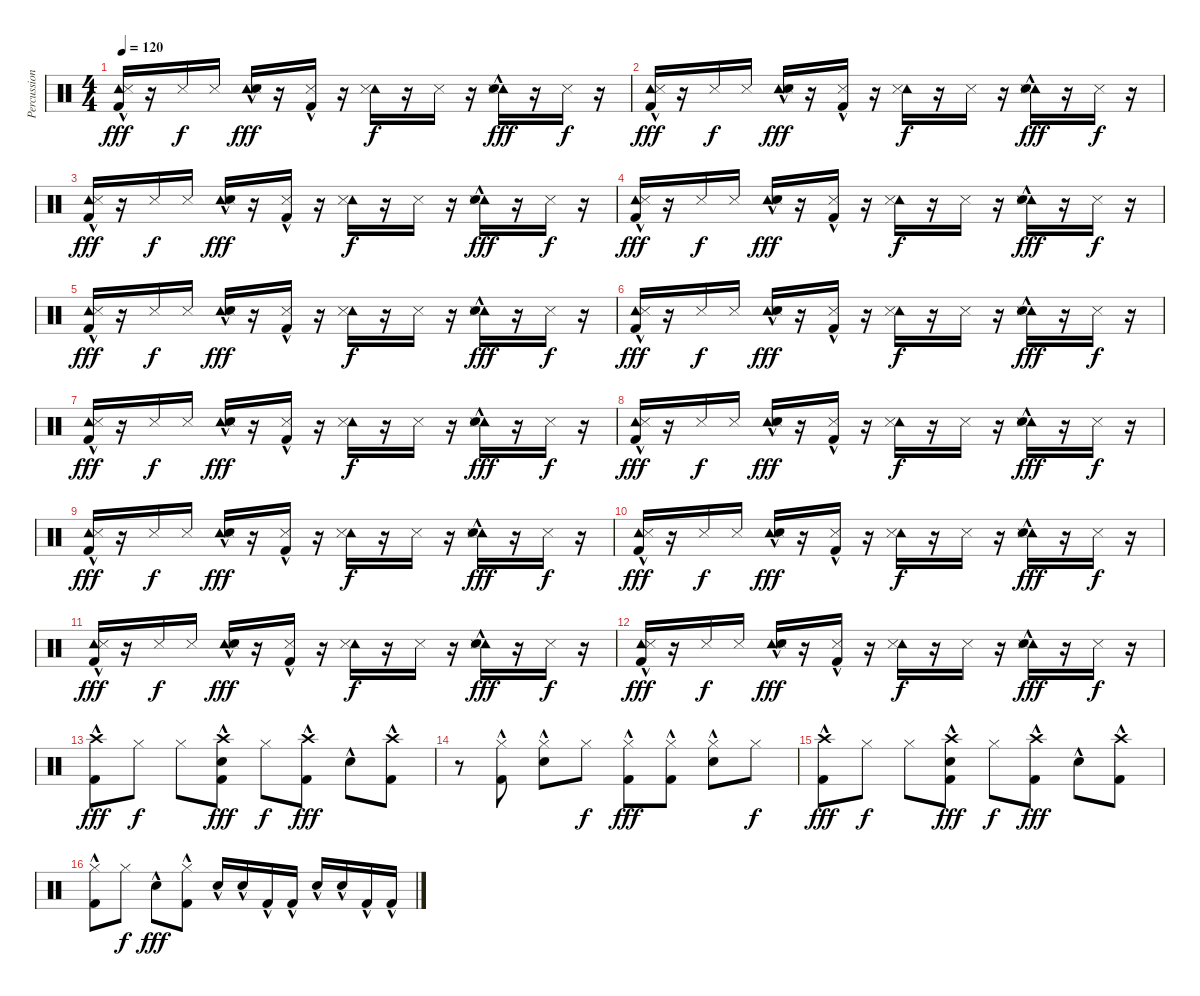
\track ("Percussion" "Percussion") {instrument percussion}
\staff {score}
\articulation defaults
\ts (4 4)
\tempo 120
\clef neutral
\ks c
("Tambourine (hit)" "Snare (side stick) 3" "Kick (hit) 2"{hac}).16{dy fff} r.16 "Snare (side stick) 3".16{dy f} "Snare (side stick) 3".16 ("Tambourine (hit)" "Snare (side stick) 3" "Snare (hit) 2"{hac}).16{dy fff} r.16 ("Snare (side stick) 3" "Kick (hit) 2"{hac}).16 r.16 ("Tambourine (hit)" "Snare (side stick) 3").16{dy f} r.16 "Snare (side stick) 3".16 r.16 ("Tambourine (hit)" "Snare (side stick) 3" "Snare (hit) 2"{hac}).16{dy fff} r.16 "Snare (side stick) 3".16{dy f} r.16 |
("Tambourine (hit)" "Snare (side stick) 3" "Kick (hit) 2"{hac}).16{dy fff} r.16 "Snare (side stick) 3".16{dy f} "Snare (side stick) 3".16 ("Tambourine (hit)" "Snare (side stick) 3" "Snare (hit) 2"{hac}).16{dy fff} r.16 ("Snare (side stick) 3" "Kick (hit) 2"{hac}).16 r.16 ("Tambourine (hit)" "Snare (side stick) 3").16{dy f} r.16 "Snare (side stick) 3".16 r.16 ("Tambourine (hit)" "Snare (side stick) 3" "Snare (hit) 2"{hac}).16{dy fff} r.16 "Snare (side stick) 3".16{dy f} r.16 |
("Tambourine (hit)" "Snare (side stick) 3" "Kick (hit) 2"{hac}).16{dy fff} r.16 "Snare (side stick) 3".16{dy f} "Snare (side stick) 3".16 ("Tambourine (hit)" "Snare (side stick) 3" "Snare (hit) 2"{hac}).16{dy fff} r.16 ("Snare (side stick) 3" "Kick (hit) 2"{hac}).16 r.16 ("Tambourine (hit)" "Snare (side stick) 3").16{dy f} r.16 "Snare (side stick) 3".16 r.16 ("Tambourine (hit)" "Snare (side stick) 3" "Snare (hit) 2"{hac}).16{dy fff} r.16 "Snare (side stick) 3".16{dy f} r.16 |
("Tambourine (hit)" "Snare (side stick) 3" "Kick (hit) 2"{hac}).16{dy fff} r.16 "Snare (side stick) 3".16{dy f} "Snare (side stick) 3".16 ("Tambourine (hit)" "Snare (side stick) 3" "Snare (hit) 2"{hac}).16{dy fff} r.16 ("Snare (side stick) 3" "Kick (hit) 2"{hac}).16 r.16 ("Tambourine (hit)" "Snare (side stick) 3").16{dy f} r.16 "Snare (side stick) 3".16 r.16 ("Tambourine (hit)" "Snare (side stick) 3" "Snare (hit) 2"{hac}).16{dy fff} r.16 "Snare (side stick) 3".16{dy f} r.16 |
("Tambourine (hit)" "Snare (side stick) 3" "Kick (hit) 2"{hac}).16{dy fff} r.16 "Snare (side stick) 3".16{dy f} "Snare (side stick) 3".16 ("Tambourine (hit)" "Snare (side stick) 3" "Snare (hit) 2"{hac}).16{dy fff} r.16 ("Snare (side stick) 3" "Kick (hit) 2"{hac}).16 r.16 ("Tambourine (hit)" "Snare (side stick) 3").16{dy f} r.16 "Snare (side stick) 3".16 r.16 ("Tambourine (hit)" "Snare (side stick) 3" "Snare (hit) 2"{hac}).16{dy fff} r.16 "Snare (side stick) 3".16{dy f} r.16 |
("Tambourine (hit)" "Snare (side stick) 3" "Kick (hit) 2"{hac}).16{dy fff} r.16 "Snare (side stick) 3".16{dy f} "Snare (side stick) 3".16 ("Tambourine (hit)" "Snare (side stick) 3" "Snare (hit) 2"{hac}).16{dy fff} r.16 ("Snare (side stick) 3" "Kick (hit) 2"{hac}).16 r.16 ("Tambourine (hit)" "Snare (side stick) 3").16{dy f} r.16 "Snare (side stick) 3".16 r.16 ("Tambourine (hit)" "Snare (side stick) 3" "Snare (hit) 2"{hac}).16{dy fff} r.16 "Snare (side stick) 3".16{dy f} r.16 |
("Tambourine (hit)" "Snare (side stick) 3" "Kick (hit) 2"{hac}).16{dy fff} r.16 "Snare (side stick) 3".16{dy f} "Snare (side stick) 3".16 ("Tambourine (hit)" "Snare (side stick) 3" "Snare (hit) 2"{hac}).16{dy fff} r.16 ("Snare (side stick) 3" "Kick (hit) 2"{hac}).16 r.16 ("Tambourine (hit)" "Snare (side stick) 3").16{dy f} r.16 "Snare (side stick) 3".16 r.16 ("Tambourine (hit)" "Snare (side stick) 3" "Snare (hit) 2"{hac}).16{dy fff} r.16 "Snare (side stick) 3".16{dy f} r.16 |
("Tambourine (hit)" "Snare (side stick) 3" "Kick (hit) 2"{hac}).16{dy fff} r.16 "Snare (side stick) 3".16{dy f} "Snare (side stick) 3".16 ("Tambourine (hit)" "Snare (side stick) 3" "Snare (hit) 2"{hac}).16{dy fff} r.16 ("Snare (side stick) 3" "Kick (hit) 2"{hac}).16 r.16 ("Tambourine (hit)" "Snare (side stick) 3").16{dy f} r.16 "Snare (side stick) 3".16 r.16 ("Tambourine (hit)" "Snare (side stick) 3" "Snare (hit) 2"{hac}).16{dy fff} r.16 "Snare (side stick) 3".16{dy f} r.16 |
("Tambourine (hit)" "Snare (side stick) 3" "Kick (hit) 2"{hac}).16{dy fff} r.16 "Snare (side stick) 3".16{dy f} "Snare (side stick) 3".16 ("Tambourine (hit)" "Snare (side stick) 3" "Snare (hit) 2"{hac}).16{dy fff} r.16 ("Snare (side stick) 3" "Kick (hit) 2"{hac}).16 r.16 ("Tambourine (hit)" "Snare (side stick) 3").16{dy f} r.16 "Snare (side stick) 3".16 r.16 ("Tambourine (hit)" "Snare (side stick) 3" "Snare (hit) 2"{hac}).16{dy fff} r.16 "Snare (side stick) 3".16{dy f} r.16 |
("Tambourine (hit)" "Snare (side stick) 3" "Kick (hit) 2"{hac}).16{dy fff} r.16 "Snare (side stick) 3".16{dy f} "Snare (side stick) 3".16 ("Tambourine (hit)" "Snare (side stick) 3" "Snare (hit) 2"{hac}).16{dy fff} r.16 ("Snare (side stick) 3" "Kick (hit) 2"{hac}).16 r.16 ("Tambourine (hit)" "Snare (side stick) 3").16{dy f} r.16 "Snare (side stick) 3".16 r.16 ("Tambourine (hit)" "Snare (side stick) 3" "Snare (hit) 2"{hac}).16{dy fff} r.16 "Snare (side stick) 3".16{dy f} r.16 |
("Tambourine (hit)" "Snare (side stick) 3" "Kick (hit) 2"{hac}).16{dy fff} r.16 "Snare (side stick) 3".16{dy f} "Snare (side stick) 3".16 ("Tambourine (hit)" "Snare (side stick) 3" "Snare (hit) 2"{hac}).16{dy fff} r.16 ("Snare (side stick) 3" "Kick (hit) 2"{hac}).16 r.16 ("Tambourine (hit)" "Snare (side stick) 3").16{dy f} r.16 "Snare (side stick) 3".16 r.16 ("Tambourine (hit)" "Snare (side stick) 3" "Snare (hit) 2"{hac}).16{dy fff} r.16 "Snare (side stick) 3".16{dy f} r.16 |
("Tambourine (hit)" "Snare (side stick) 3" "Kick (hit) 2"{hac}).16{dy fff} r.16 "Snare (side stick) 3".16{dy f} "Snare (side stick) 3".16 ("Tambourine (hit)" "Snare (side stick) 3" "Snare (hit) 2"{hac}).16{dy fff} r.16 ("Snare (side stick) 3" "Kick (hit) 2"{hac}).16 r.16 ("Tambourine (hit)" "Snare (side stick) 3").16{dy f} r.16 "Snare (side stick) 3".16 r.16 ("Tambourine (hit)" "Snare (side stick) 3" "Snare (hit) 2"{hac}).16{dy fff} r.16 "Snare (side stick) 3".16{dy f} r.16 |
("Crash high (hit)" "Kick (hit) 2"{hac}).8{dy fff} "Hi-Hat (closed)".8{dy f} "Hi-Hat (closed)".8 ("Crash high (hit)" "Snare (hit) 2"{hac} "Kick (hit) 2"{hac}).8{dy fff} "Hi-Hat (closed)".8{dy f} ("Crash high (hit)" "Kick (hit) 2"{hac}).8{dy fff} "Snare (hit) 2"{hac}.8 ("Crash high (hit)" "Kick (hit) 2"{hac}).8 |
r.8 ("Hi-Hat (closed)" "Kick (hit) 2"{hac}).8 ("Hi-Hat (closed)" "Snare (hit) 2"{hac}).8 "Hi-Hat (closed)".8{dy f} ("Hi-Hat (closed)" "Kick (hit) 2"{hac}).8{dy fff} ("Hi-Hat (closed)" "Kick (hit) 2"{hac}).8 ("Hi-Hat (closed)" "Snare (hit) 2"{hac}).8 "Hi-Hat (closed)".8{dy f} |
("Crash high (hit)" "Kick (hit) 2"{hac}).8{dy fff} "Hi-Hat (closed)".8{dy f} "Hi-Hat (closed)".8 ("Crash high (hit)" "Snare (hit) 2"{hac} "Kick (hit) 2"{hac}).8{dy fff} "Hi-Hat (closed)".8{dy f} ("Crash high (hit)" "Kick (hit) 2"{hac}).8{dy fff} "Snare (hit) 2"{hac}.8 ("Crash high (hit)" "Kick (hit) 2"{hac}).8 |
("Hi-Hat (closed)" "Kick (hit) 2"{hac}).8 "Hi-Hat (closed)".8{dy f} "Snare (hit) 2"{hac}.8{dy fff} ("Hi-Hat (closed)" "Kick (hit) 2"{hac}).8 "Snare (hit) 2"{hac}.16 "Snare (hit) 2"{hac}.16 "Kick (hit) 2"{hac}.16 "Kick (hit) 2"{hac}.16 "Snare (hit) 2"{hac}.16 "Snare (hit) 2"{hac}.16 "Kick (hit) 2"{hac}.16 "Kick (hit) 2"{hac}.16
